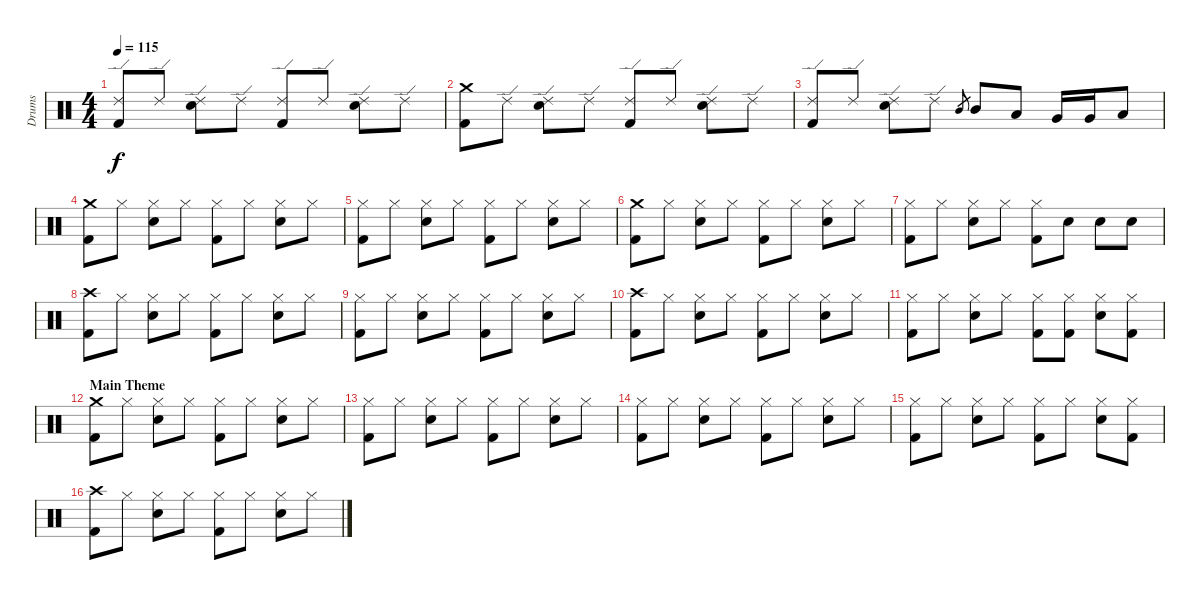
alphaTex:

\track ("Drums   " "Drums   ") {instrument percussion}
\staff {score}
\articulation defaults
\ts (4 4)
\tempo 115
\clef neutral
\ks c
("Ride (edge) 2" "Kick (hit) 2").8{dy f} "Ride (edge) 2".8 ("Ride (edge) 2" "Snare (hit) 2").8 "Ride (edge) 2".8 ("Ride (edge) 2" "Kick (hit) 2").8 "Ride (edge) 2".8 ("Ride (edge) 2" "Snare (hit) 2").8 "Ride (edge) 2".8 |
("Crash medium (hit)" "Kick (hit) 2").8 "Ride (edge) 2".8 ("Ride (edge) 2" "Snare (hit) 2").8 "Ride (edge) 2".8 ("Ride (edge) 2" "Kick (hit) 2").8 "Ride (edge) 2".8 ("Ride (edge) 2" "Snare (hit) 2").8 "Ride (edge) 2".8 |
("Ride (edge) 2" "Kick (hit) 2").8 "Ride (edge) 2".8 ("Ride (edge) 2" "Snare (hit) 2").8 "Ride (edge) 2".8 "Mid Tom (hit)".8{gr} "Mid Tom (hit)".8 "Low Tom (hit)".8 "Very Low Tom (hit)".16 "Very Low Tom (hit)".16 "Low Floor Tom (hit)".8 |
("Crash medium (hit)" "Kick (hit) 2").8 "Hi-Hat (closed)".8 ("Hi-Hat (closed)" "Snare (hit) 2").8 "Hi-Hat (closed)".8 ("Hi-Hat (closed)" "Kick (hit) 2").8 "Hi-Hat (closed)".8 ("Hi-Hat (closed)" "Snare (hit) 2").8 "Hi-Hat (closed)".8 |
("Hi-Hat (closed)" "Kick (hit) 2").8 "Hi-Hat (closed)".8 ("Hi-Hat (closed)" "Snare (hit) 2").8 "Hi-Hat (closed)".8 ("Hi-Hat (closed)" "Kick (hit) 2").8 "Hi-Hat (closed)".8 ("Hi-Hat (closed)" "Snare (hit) 2").8 "Hi-Hat (closed)".8 |
("Crash medium (hit)" "Kick (hit) 2").8 "Hi-Hat (closed)".8 ("Hi-Hat (closed)" "Snare (hit) 2").8 "Hi-Hat (closed)".8 ("Hi-Hat (closed)" "Kick (hit) 2").8 "Hi-Hat (closed)".8 ("Hi-Hat (closed)" "Snare (hit) 2").8 "Hi-Hat (closed)".8 |
("Hi-Hat (closed)" "Kick (hit) 2").8 "Hi-Hat (closed)".8 ("Hi-Hat (closed)" "Snare (hit) 2").8 "Hi-Hat (closed)".8 ("Hi-Hat (closed)" "Kick (hit) 2").8 "Snare (hit) 2".8 "Snare (hit) 2".8 "Snare (hit) 2".8 |
("Crash high (hit)" "Kick (hit) 2").8 "Hi-Hat (closed)".8 ("Hi-Hat (closed)" "Snare (hit) 2").8 "Hi-Hat (closed)".8 ("Hi-Hat (closed)" "Kick (hit) 2").8 "Hi-Hat (closed)".8 ("Hi-Hat (closed)" "Snare (hit) 2").8 "Hi-Hat (closed)".8 |
("Hi-Hat (closed)" "Kick (hit) 2").8 "Hi-Hat (closed)".8 ("Hi-Hat (closed)" "Snare (hit) 2").8 "Hi-Hat (closed)".8 ("Hi-Hat (closed)" "Kick (hit) 2").8 "Hi-Hat (closed)".8 ("Hi-Hat (closed)" "Snare (hit) 2").8 "Hi-Hat (closed)".8 |
("Crash high (hit)" "Kick (hit) 2").8 "Hi-Hat (closed)".8 ("Hi-Hat (closed)" "Snare (hit) 2").8 "Hi-Hat (closed)".8 ("Hi-Hat (closed)" "Kick (hit) 2").8 "Hi-Hat (closed)".8 ("Hi-Hat (closed)" "Snare (hit) 2").8 "Hi-Hat (closed)".8 |
("Hi-Hat (closed)" "Kick (hit) 2").8 "Hi-Hat (closed)".8 ("Hi-Hat (closed)" "Snare (hit) 2").8 "Hi-Hat (closed)".8 ("Hi-Hat (closed)" "Kick (hit) 2").8 ("Hi-Hat (closed)" "Kick (hit) 2").8 ("Hi-Hat (closed)" "Snare (hit) 2").8 ("Hi-Hat (closed)" "Kick (hit) 2").8 |
\section ("" "Main Theme")
("Crash medium (hit)" "Kick (hit) 2").8 "Hi-Hat (closed)".8 ("Hi-Hat (closed)" "Snare (hit) 2").8 "Hi-Hat (closed)".8 ("Hi-Hat (closed)" "Kick (hit) 2").8 "Hi-Hat (closed)".8 ("Hi-Hat (closed)" "Snare (hit) 2").8 "Hi-Hat (closed)".8 |
("Hi-Hat (closed)" "Kick (hit) 2").8 "Hi-Hat (closed)".8 ("Hi-Hat (closed)" "Snare (hit) 2").8 "Hi-Hat (closed)".8 ("Hi-Hat (closed)" "Kick (hit) 2").8 "Hi-Hat (closed)".8 ("Hi-Hat (closed)" "Snare (hit) 2").8 "Hi-Hat (closed)".8 |
("Hi-Hat (closed)" "Kick (hit) 2").8 "Hi-Hat (closed)".8 ("Hi-Hat (closed)" "Snare (hit) 2").8 "Hi-Hat (closed)".8 ("Hi-Hat (closed)" "Kick (hit) 2").8 "Hi-Hat (closed)".8 ("Hi-Hat (closed)" "Snare (hit) 2").8 "Hi-Hat (closed)".8 |
("Hi-Hat (closed)" "Kick (hit) 2").8 "Hi-Hat (closed)".8 ("Hi-Hat (closed)" "Snare (hit) 2").8 "Hi-Hat (closed)".8 ("Hi-Hat (closed)" "Kick (hit) 2").8 "Hi-Hat (closed)".8 ("Hi-Hat (closed)" "Snare (hit) 2").8 ("Hi-Hat (closed)" "Kick (hit) 2").8 |
("Crash high (hit)" "Kick (hit) 2").8 "Hi-Hat (closed)".8 ("Hi-Hat (closed)" "Snare (hit) 2").8 "Hi-Hat (closed)".8 ("Hi-Hat (closed)" "Kick (hit) 2").8 "Hi-Hat (closed)".8 ("Hi-Hat (closed)" "Snare (hit) 2").8 "Hi-Hat (closed)".8
